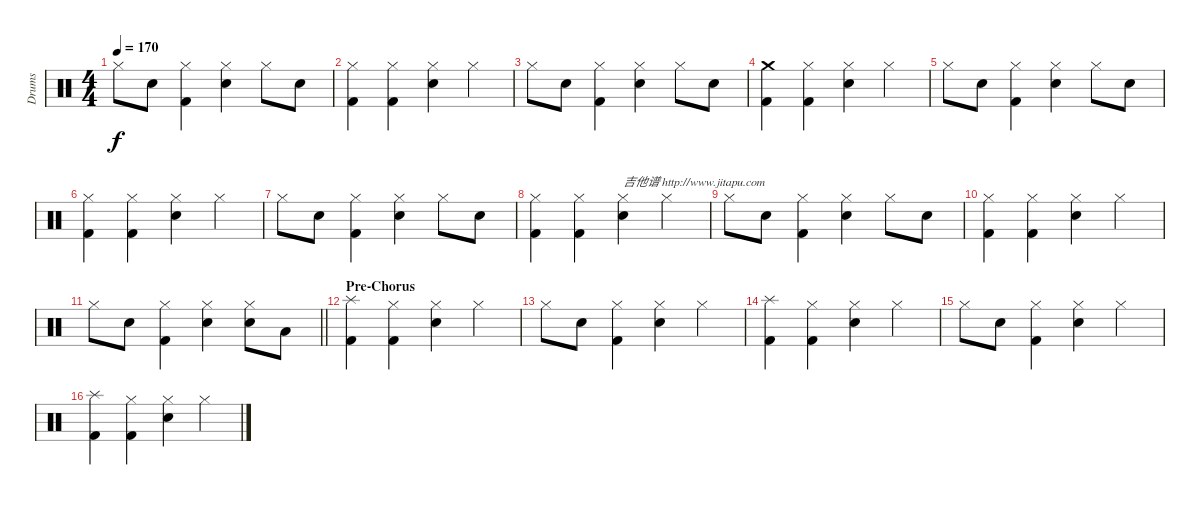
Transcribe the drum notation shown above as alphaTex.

\track ("Drums" "Drums") {instrument percussion}
\staff {score}
\articulation defaults
\ts (4 4)
\tempo 170
\clef neutral
\ks c "Hi-Hat (closed)".8{dy f} "Electric Snare (hit)".8
("Hi-Hat (closed)" "Kick (hit) 2").4 ("Hi-Hat (closed)" "Electric Snare (hit)").4 "Hi-Hat (closed)".8 "Electric Snare (hit)".8 |
("Hi-Hat (closed)" "Kick (hit) 2").4 ("Hi-Hat (closed)" "Kick (hit) 2").4 ("Hi-Hat (closed)" "Electric Snare (hit)").4 "Hi-Hat (closed)".4 |
"Hi-Hat (closed)".8 "Electric Snare (hit)".8 ("Hi-Hat (closed)" "Kick (hit) 2").4 ("Hi-Hat (closed)" "Electric Snare (hit)").4 "Hi-Hat (closed)".8 "Electric Snare (hit)".8 |
("Crash medium (hit)" "Kick (hit) 2").4 ("Hi-Hat (closed)" "Kick (hit) 2").4 ("Hi-Hat (closed)" "Electric Snare (hit)").4 "Hi-Hat (closed)".4 |
"Hi-Hat (closed)".8 "Electric Snare (hit)".8 ("Hi-Hat (closed)" "Kick (hit) 2").4 ("Hi-Hat (closed)" "Electric Snare (hit)").4 "Hi-Hat (closed)".8 "Electric Snare (hit)".8 |
("Hi-Hat (closed)" "Kick (hit) 2").4 ("Hi-Hat (closed)" "Kick (hit) 2").4 ("Hi-Hat (closed)" "Electric Snare (hit)").4 "Hi-Hat (closed)".4 |
"Hi-Hat (closed)".8 "Electric Snare (hit)".8 ("Hi-Hat (closed)" "Kick (hit) 2").4 ("Hi-Hat (closed)" "Electric Snare (hit)").4 "Hi-Hat (closed)".8 "Electric Snare (hit)".8 |
("Hi-Hat (closed)" "Kick (hit) 2").4 ("Hi-Hat (closed)" "Kick (hit) 2").4 ("Hi-Hat (closed)" "Electric Snare (hit)").4{txt "吉他谱 http://www.jitapu.com"} "Hi-Hat (closed)".4 |
"Hi-Hat (closed)".8 "Electric Snare (hit)".8 ("Hi-Hat (closed)" "Kick (hit) 2").4 ("Hi-Hat (closed)" "Electric Snare (hit)").4 "Hi-Hat (closed)".8 "Electric Snare (hit)".8 |
("Hi-Hat (closed)" "Kick (hit) 2").4 ("Hi-Hat (closed)" "Kick (hit) 2").4 ("Hi-Hat (closed)" "Electric Snare (hit)").4 "Hi-Hat (closed)".4 |
\barLineRight lightlight "Hi-Hat (closed)".8 "Electric Snare (hit)".8
("Hi-Hat (closed)" "Kick (hit) 2").4 ("Hi-Hat (closed)" "Electric Snare (hit)").4 ("Hi-Hat (closed)" "Electric Snare (hit)").8 "Low Tom (hit)".8 |
\section ("" "Pre-Chorus")
("Splash (hit)" "Kick (hit) 2").4 ("Hi-Hat (closed)" "Kick (hit) 2").4 ("Hi-Hat (closed)" "Electric Snare (hit)").4 "Hi-Hat (closed)".4 |
"Hi-Hat (closed)".8 "Electric Snare (hit)".8 ("Hi-Hat (closed)" "Kick (hit) 2").4 ("Hi-Hat (closed)" "Electric Snare (hit)").4 "Hi-Hat (closed)".4 |
("Splash (hit)" "Kick (hit) 2").4 ("Hi-Hat (closed)" "Kick (hit) 2").4 ("Hi-Hat (closed)" "Electric Snare (hit)").4 "Hi-Hat (closed)".4 |
"Hi-Hat (closed)".8 "Electric Snare (hit)".8 ("Hi-Hat (closed)" "Kick (hit) 2").4 ("Hi-Hat (closed)" "Electric Snare (hit)").4 "Hi-Hat (closed)".4 |
("Splash (hit)" "Kick (hit) 2").4 ("Hi-Hat (closed)" "Kick (hit) 2").4 ("Hi-Hat (closed)" "Electric Snare (hit)").4 "Hi-Hat (closed)".4
